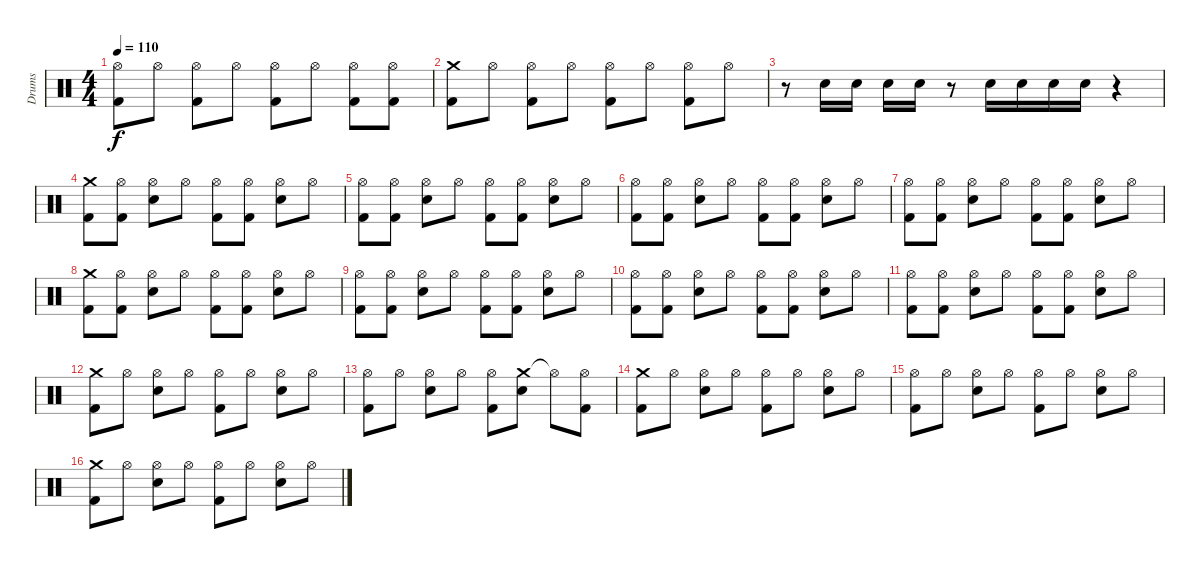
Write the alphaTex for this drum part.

\track ("Drums" "Drums") {instrument percussion}
\staff {score}
\articulation defaults
\ts (4 4)
\tempo 110
\clef neutral
\ks c
("Hi-Hat (open)" "Kick (hit) 2").8{dy f} "Hi-Hat (open)".8 ("Hi-Hat (open)" "Kick (hit) 2").8 "Hi-Hat (open)".8 ("Hi-Hat (open)" "Kick (hit) 2").8 "Hi-Hat (open)".8 ("Hi-Hat (open)" "Kick (hit) 2").8 ("Hi-Hat (open)" "Kick (hit) 2").8 |
("Crash medium (hit)" "Kick (hit) 2").8 "Hi-Hat (open)".8 ("Hi-Hat (open)" "Kick (hit) 2").8 "Hi-Hat (open)".8 ("Hi-Hat (open)" "Kick (hit) 2").8 "Hi-Hat (open)".8 ("Hi-Hat (open)" "Kick (hit) 2").8 "Hi-Hat (open)".8 |
r.8 "Snare (hit) 2".16 "Snare (hit) 2".16 "Snare (hit) 2".16 "Snare (hit) 2".16 r.8 "Snare (hit) 2".16 "Snare (hit) 2".16 "Snare (hit) 2".16 "Snare (hit) 2".16 r.4 |
("Crash medium (hit)" "Kick (hit) 2").8 ("Hi-Hat (open)" "Kick (hit) 2").8 ("Hi-Hat (open)" "Snare (hit) 2").8 "Hi-Hat (open)".8 ("Hi-Hat (open)" "Kick (hit) 2").8 ("Hi-Hat (open)" "Kick (hit) 2").8 ("Hi-Hat (open)" "Snare (hit) 2").8 "Hi-Hat (open)".8 |
("Hi-Hat (open)" "Kick (hit) 2").8 ("Hi-Hat (open)" "Kick (hit) 2").8 ("Hi-Hat (open)" "Snare (hit) 2").8 "Hi-Hat (open)".8 ("Hi-Hat (open)" "Kick (hit) 2").8 ("Hi-Hat (open)" "Kick (hit) 2").8 ("Hi-Hat (open)" "Snare (hit) 2").8 "Hi-Hat (open)".8 |
("Hi-Hat (open)" "Kick (hit) 2").8 ("Hi-Hat (open)" "Kick (hit) 2").8 ("Hi-Hat (open)" "Snare (hit) 2").8 "Hi-Hat (open)".8 ("Hi-Hat (open)" "Kick (hit) 2").8 ("Hi-Hat (open)" "Kick (hit) 2").8 ("Hi-Hat (open)" "Snare (hit) 2").8 "Hi-Hat (open)".8 |
("Hi-Hat (open)" "Kick (hit) 2").8 ("Hi-Hat (open)" "Kick (hit) 2").8 ("Hi-Hat (open)" "Snare (hit) 2").8 "Hi-Hat (open)".8 ("Hi-Hat (open)" "Kick (hit) 2").8 ("Hi-Hat (open)" "Kick (hit) 2").8 ("Hi-Hat (open)" "Snare (hit) 2").8 "Hi-Hat (open)".8 |
("Crash medium (hit)" "Kick (hit) 2").8 ("Hi-Hat (open)" "Kick (hit) 2").8 ("Hi-Hat (open)" "Snare (hit) 2").8 "Hi-Hat (open)".8 ("Hi-Hat (open)" "Kick (hit) 2").8 ("Hi-Hat (open)" "Kick (hit) 2").8 ("Hi-Hat (open)" "Snare (hit) 2").8 "Hi-Hat (open)".8 |
("Hi-Hat (open)" "Kick (hit) 2").8 ("Hi-Hat (open)" "Kick (hit) 2").8 ("Hi-Hat (open)" "Snare (hit) 2").8 "Hi-Hat (open)".8 ("Hi-Hat (open)" "Kick (hit) 2").8 ("Hi-Hat (open)" "Kick (hit) 2").8 ("Hi-Hat (open)" "Snare (hit) 2").8 "Hi-Hat (open)".8 |
("Hi-Hat (open)" "Kick (hit) 2").8 ("Hi-Hat (open)" "Kick (hit) 2").8 ("Hi-Hat (open)" "Snare (hit) 2").8 "Hi-Hat (open)".8 ("Hi-Hat (open)" "Kick (hit) 2").8 ("Hi-Hat (open)" "Kick (hit) 2").8 ("Hi-Hat (open)" "Snare (hit) 2").8 "Hi-Hat (open)".8 |
("Hi-Hat (open)" "Kick (hit) 2").8 ("Hi-Hat (open)" "Kick (hit) 2").8 ("Hi-Hat (open)" "Snare (hit) 2").8 "Hi-Hat (open)".8 ("Hi-Hat (open)" "Kick (hit) 2").8 ("Hi-Hat (open)" "Kick (hit) 2").8 ("Hi-Hat (open)" "Snare (hit) 2").8 "Hi-Hat (open)".8 |
("Crash medium (hit)" "Kick (hit) 2").8 "Hi-Hat (open)".8 ("Hi-Hat (open)" "Snare (hit) 2").8 "Hi-Hat (open)".8 ("Hi-Hat (open)" "Kick (hit) 2").8 "Hi-Hat (open)".8 ("Hi-Hat (open)" "Snare (hit) 2").8 "Hi-Hat (open)".8 |
("Hi-Hat (open)" "Kick (hit) 2").8 "Hi-Hat (open)".8 ("Hi-Hat (open)" "Snare (hit) 2").8 "Hi-Hat (open)".8 ("Hi-Hat (open)" "Kick (hit) 2").8 ("Crash medium (hit)" "Snare (hit) 2").8 "Hi-Hat (open)"{t}.8 ("Hi-Hat (open)" "Kick (hit) 2").8 |
("Crash medium (hit)" "Kick (hit) 2").8 "Hi-Hat (open)".8 ("Hi-Hat (open)" "Snare (hit) 2").8 "Hi-Hat (open)".8 ("Hi-Hat (open)" "Kick (hit) 2").8 "Hi-Hat (open)".8 ("Hi-Hat (open)" "Snare (hit) 2").8 "Hi-Hat (open)".8 |
("Hi-Hat (open)" "Kick (hit) 2").8 "Hi-Hat (open)".8 ("Hi-Hat (open)" "Snare (hit) 2").8 "Hi-Hat (open)".8 ("Hi-Hat (open)" "Kick (hit) 2").8 "Hi-Hat (open)".8 ("Hi-Hat (open)" "Snare (hit) 2").8 "Hi-Hat (open)".8 |
("Crash medium (hit)" "Kick (hit) 2").8 "Hi-Hat (open)".8 ("Hi-Hat (open)" "Snare (hit) 2").8 "Hi-Hat (open)".8 ("Hi-Hat (open)" "Kick (hit) 2").8 "Hi-Hat (open)".8 ("Hi-Hat (open)" "Snare (hit) 2").8 "Hi-Hat (open)".8
